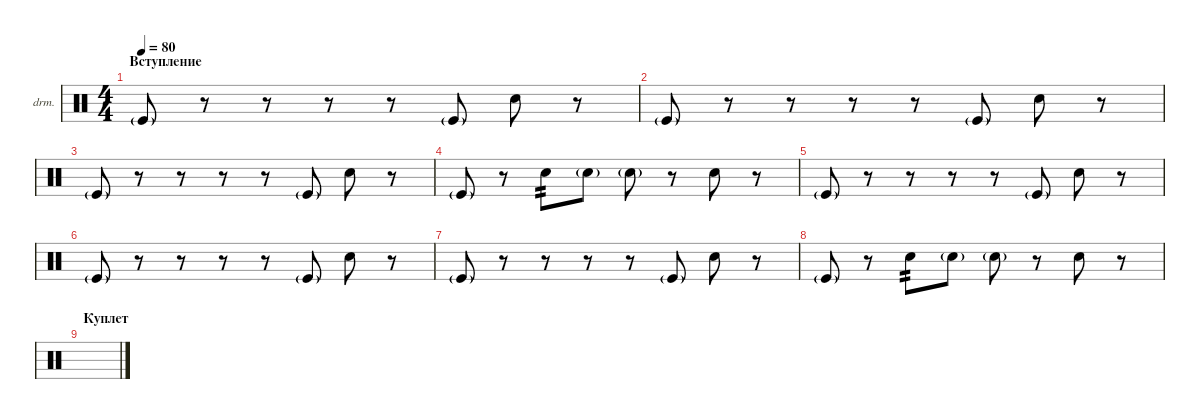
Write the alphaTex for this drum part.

\defaultSystemsLayout 4
\hideDynamics
\bracketExtendMode nobrackets
\firstSystemTrackNameOrientation horizontal
\otherSystemsTrackNameOrientation horizontal
\track ("Drumkit" "drm.") {instrument percussion}
\staff {score}
\articulation defaults
\ts (4 4)
\section ("" "Вступление")
\tempo 80
\clef neutral
\ks c "Kick (hit)"{g}.8{dy mf}
r.8 r.8 r.8 r.8 "Kick (hit)"{g}.8 "Snare (hit) 2".8 r.8 |
"Kick (hit)"{g}.8 r.8 r.8 r.8 r.8 "Kick (hit)"{g}.8 "Snare (hit) 2".8 r.8 |
"Kick (hit)"{g}.8 r.8 r.8 r.8 r.8 "Kick (hit)"{g}.8 "Snare (hit) 2".8 r.8 |
"Kick (hit)"{g}.8 r.8 "Snare (hit) 2".8{tp 2} "Snare (hit) 2"{g}.8{dy mp} "Snare (hit) 2"{g}.8 r.8 "Snare (hit) 2".8{dy mf} r.8 |
"Kick (hit)"{g}.8 r.8 r.8 r.8 r.8 "Kick (hit)"{g}.8 "Snare (hit) 2".8 r.8 |
"Kick (hit)"{g}.8 r.8 r.8 r.8 r.8 "Kick (hit)"{g}.8 "Snare (hit) 2".8 r.8 |
"Kick (hit)"{g}.8 r.8 r.8 r.8 r.8 "Kick (hit)"{g}.8 "Snare (hit) 2".8 r.8 |
"Kick (hit)"{g}.8 r.8 "Snare (hit) 2".8{tp 2} "Snare (hit) 2"{g}.8{dy mp} "Snare (hit) 2"{g}.8 r.8 "Snare (hit) 2".8{dy mf} r.8 |
\section ("" "Куплет ")
